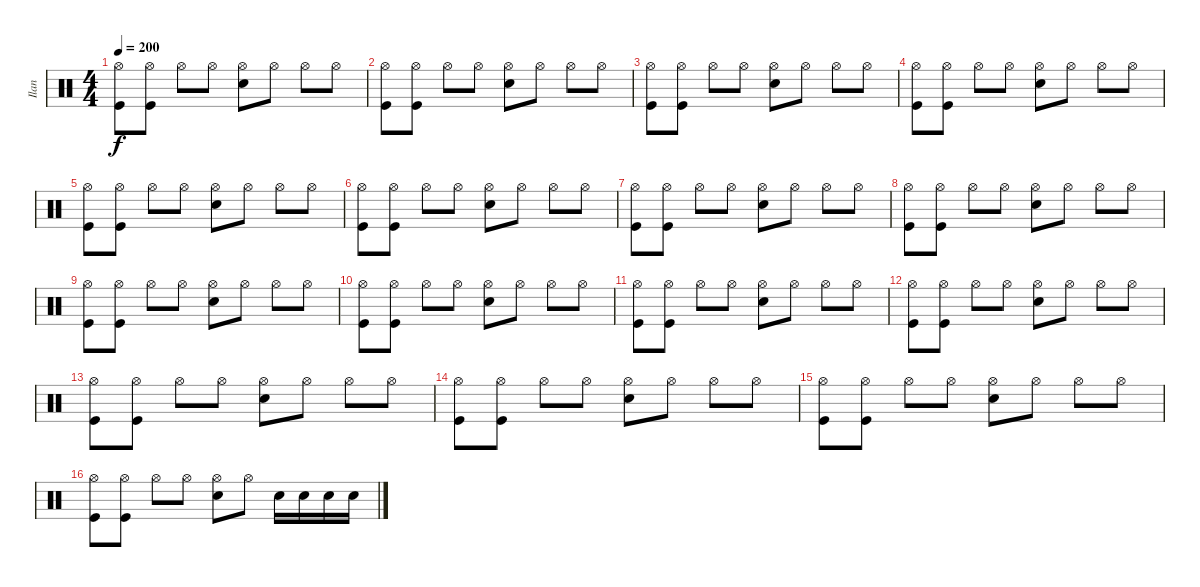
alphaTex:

\track ("Ilan" "Ilan") {instrument percussion}
\staff {score}
\articulation defaults
\ts (4 4)
\tempo 200
\clef neutral
\ks c
("Hi-Hat (open)" "Kick (hit)").8{dy f} ("Hi-Hat (open)" "Kick (hit)").8 "Hi-Hat (open)".8 "Hi-Hat (open)".8 ("Hi-Hat (open)" "Electric Snare (hit)").8 "Hi-Hat (open)".8 "Hi-Hat (open)".8 "Hi-Hat (open)".8 |
("Hi-Hat (open)" "Kick (hit)").8 ("Hi-Hat (open)" "Kick (hit)").8 "Hi-Hat (open)".8 "Hi-Hat (open)".8 ("Hi-Hat (open)" "Electric Snare (hit)").8 "Hi-Hat (open)".8 "Hi-Hat (open)".8 "Hi-Hat (open)".8 |
("Hi-Hat (open)" "Kick (hit)").8 ("Hi-Hat (open)" "Kick (hit)").8 "Hi-Hat (open)".8 "Hi-Hat (open)".8 ("Hi-Hat (open)" "Electric Snare (hit)").8 "Hi-Hat (open)".8 "Hi-Hat (open)".8 "Hi-Hat (open)".8 |
("Hi-Hat (open)" "Kick (hit)").8 ("Hi-Hat (open)" "Kick (hit)").8 "Hi-Hat (open)".8 "Hi-Hat (open)".8 ("Hi-Hat (open)" "Electric Snare (hit)").8 "Hi-Hat (open)".8 "Hi-Hat (open)".8 "Hi-Hat (open)".8 |
("Hi-Hat (open)" "Kick (hit)").8 ("Hi-Hat (open)" "Kick (hit)").8 "Hi-Hat (open)".8 "Hi-Hat (open)".8 ("Hi-Hat (open)" "Electric Snare (hit)").8 "Hi-Hat (open)".8 "Hi-Hat (open)".8 "Hi-Hat (open)".8 |
("Hi-Hat (open)" "Kick (hit)").8 ("Hi-Hat (open)" "Kick (hit)").8 "Hi-Hat (open)".8 "Hi-Hat (open)".8 ("Hi-Hat (open)" "Electric Snare (hit)").8 "Hi-Hat (open)".8 "Hi-Hat (open)".8 "Hi-Hat (open)".8 |
("Hi-Hat (open)" "Kick (hit)").8 ("Hi-Hat (open)" "Kick (hit)").8 "Hi-Hat (open)".8 "Hi-Hat (open)".8 ("Hi-Hat (open)" "Electric Snare (hit)").8 "Hi-Hat (open)".8 "Hi-Hat (open)".8 "Hi-Hat (open)".8 |
("Hi-Hat (open)" "Kick (hit)").8 ("Hi-Hat (open)" "Kick (hit)").8 "Hi-Hat (open)".8 "Hi-Hat (open)".8 ("Hi-Hat (open)" "Electric Snare (hit)").8 "Hi-Hat (open)".8 "Hi-Hat (open)".8 "Hi-Hat (open)".8 |
("Hi-Hat (open)" "Kick (hit)").8 ("Hi-Hat (open)" "Kick (hit)").8 "Hi-Hat (open)".8 "Hi-Hat (open)".8 ("Hi-Hat (open)" "Electric Snare (hit)").8 "Hi-Hat (open)".8 "Hi-Hat (open)".8 "Hi-Hat (open)".8 |
("Hi-Hat (open)" "Kick (hit)").8 ("Hi-Hat (open)" "Kick (hit)").8 "Hi-Hat (open)".8 "Hi-Hat (open)".8 ("Hi-Hat (open)" "Electric Snare (hit)").8 "Hi-Hat (open)".8 "Hi-Hat (open)".8 "Hi-Hat (open)".8 |
("Hi-Hat (open)" "Kick (hit)").8 ("Hi-Hat (open)" "Kick (hit)").8 "Hi-Hat (open)".8 "Hi-Hat (open)".8 ("Hi-Hat (open)" "Electric Snare (hit)").8 "Hi-Hat (open)".8 "Hi-Hat (open)".8 "Hi-Hat (open)".8 |
("Hi-Hat (open)" "Kick (hit)").8 ("Hi-Hat (open)" "Kick (hit)").8 "Hi-Hat (open)".8 "Hi-Hat (open)".8 ("Hi-Hat (open)" "Electric Snare (hit)").8 "Hi-Hat (open)".8 "Hi-Hat (open)".8 "Hi-Hat (open)".8 |
("Hi-Hat (open)" "Kick (hit)").8 ("Hi-Hat (open)" "Kick (hit)").8 "Hi-Hat (open)".8 "Hi-Hat (open)".8 ("Hi-Hat (open)" "Electric Snare (hit)").8 "Hi-Hat (open)".8 "Hi-Hat (open)".8 "Hi-Hat (open)".8 |
("Hi-Hat (open)" "Kick (hit)").8 ("Hi-Hat (open)" "Kick (hit)").8 "Hi-Hat (open)".8 "Hi-Hat (open)".8 ("Hi-Hat (open)" "Electric Snare (hit)").8 "Hi-Hat (open)".8 "Hi-Hat (open)".8 "Hi-Hat (open)".8 |
("Hi-Hat (open)" "Kick (hit)").8 ("Hi-Hat (open)" "Kick (hit)").8 "Hi-Hat (open)".8 "Hi-Hat (open)".8 ("Hi-Hat (open)" "Electric Snare (hit)").8 "Hi-Hat (open)".8 "Hi-Hat (open)".8 "Hi-Hat (open)".8 |
("Hi-Hat (open)" "Kick (hit)").8 ("Hi-Hat (open)" "Kick (hit)").8 "Hi-Hat (open)".8 "Hi-Hat (open)".8 ("Hi-Hat (open)" "Electric Snare (hit)").8 "Hi-Hat (open)".8 "Electric Snare (hit)".16 "Electric Snare (hit)".16 "Electric Snare (hit)".16 "Electric Snare (hit)".16
